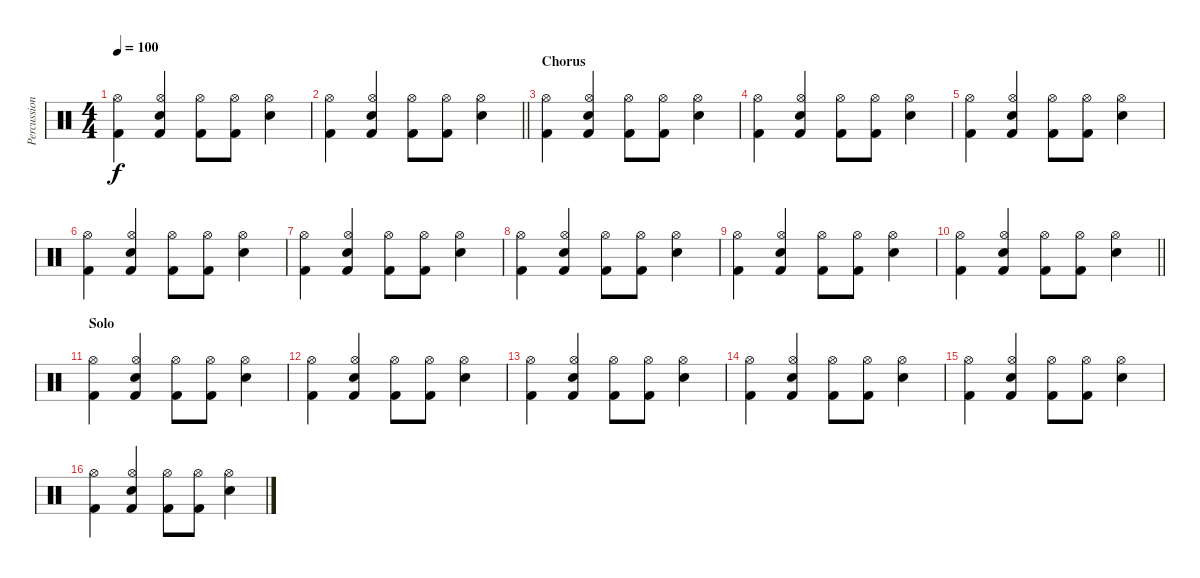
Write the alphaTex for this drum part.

\track ("Percussion" "Percussion") {instrument percussion}
\staff {score}
\articulation defaults
\ts (4 4)
\tempo 100
\clef neutral
\ks c
("Kick (hit) 2" "Hi-Hat (open)").4{dy f} ("Kick (hit) 2" "Snare (hit) 2" "Hi-Hat (open)").4 ("Kick (hit) 2" "Hi-Hat (open)").8 ("Kick (hit) 2" "Hi-Hat (open)").8 ("Snare (hit) 2" "Hi-Hat (open)").4 |
\barLineRight lightlight
("Kick (hit) 2" "Hi-Hat (open)").4 ("Kick (hit) 2" "Snare (hit) 2" "Hi-Hat (open)").4 ("Kick (hit) 2" "Hi-Hat (open)").8 ("Kick (hit) 2" "Hi-Hat (open)").8 ("Snare (hit) 2" "Hi-Hat (open)").4 |
\section ("" "Chorus")
("Kick (hit) 2" "Hi-Hat (open)").4 ("Kick (hit) 2" "Snare (hit) 2" "Hi-Hat (open)").4 ("Kick (hit) 2" "Hi-Hat (open)").8 ("Kick (hit) 2" "Hi-Hat (open)").8 ("Snare (hit) 2" "Hi-Hat (open)").4 |
("Kick (hit) 2" "Hi-Hat (open)").4 ("Kick (hit) 2" "Snare (hit) 2" "Hi-Hat (open)").4 ("Kick (hit) 2" "Hi-Hat (open)").8 ("Kick (hit) 2" "Hi-Hat (open)").8 ("Snare (hit) 2" "Hi-Hat (open)").4 |
("Kick (hit) 2" "Hi-Hat (open)").4 ("Kick (hit) 2" "Snare (hit) 2" "Hi-Hat (open)").4 ("Kick (hit) 2" "Hi-Hat (open)").8 ("Kick (hit) 2" "Hi-Hat (open)").8 ("Snare (hit) 2" "Hi-Hat (open)").4 |
("Kick (hit) 2" "Hi-Hat (open)").4 ("Kick (hit) 2" "Snare (hit) 2" "Hi-Hat (open)").4 ("Kick (hit) 2" "Hi-Hat (open)").8 ("Kick (hit) 2" "Hi-Hat (open)").8 ("Snare (hit) 2" "Hi-Hat (open)").4 |
("Kick (hit) 2" "Hi-Hat (open)").4 ("Kick (hit) 2" "Snare (hit) 2" "Hi-Hat (open)").4 ("Kick (hit) 2" "Hi-Hat (open)").8 ("Kick (hit) 2" "Hi-Hat (open)").8 ("Snare (hit) 2" "Hi-Hat (open)").4 |
("Kick (hit) 2" "Hi-Hat (open)").4 ("Kick (hit) 2" "Snare (hit) 2" "Hi-Hat (open)").4 ("Kick (hit) 2" "Hi-Hat (open)").8 ("Kick (hit) 2" "Hi-Hat (open)").8 ("Snare (hit) 2" "Hi-Hat (open)").4 |
("Kick (hit) 2" "Hi-Hat (open)").4 ("Kick (hit) 2" "Snare (hit) 2" "Hi-Hat (open)").4 ("Kick (hit) 2" "Hi-Hat (open)").8 ("Kick (hit) 2" "Hi-Hat (open)").8 ("Snare (hit) 2" "Hi-Hat (open)").4 |
\barLineRight lightlight
("Kick (hit) 2" "Hi-Hat (open)").4 ("Kick (hit) 2" "Snare (hit) 2" "Hi-Hat (open)").4 ("Kick (hit) 2" "Hi-Hat (open)").8 ("Kick (hit) 2" "Hi-Hat (open)").8 ("Snare (hit) 2" "Hi-Hat (open)").4 |
\section ("" "Solo")
("Kick (hit) 2" "Hi-Hat (open)").4 ("Kick (hit) 2" "Snare (hit) 2" "Hi-Hat (open)").4 ("Kick (hit) 2" "Hi-Hat (open)").8 ("Kick (hit) 2" "Hi-Hat (open)").8 ("Snare (hit) 2" "Hi-Hat (open)").4 |
("Kick (hit) 2" "Hi-Hat (open)").4 ("Kick (hit) 2" "Snare (hit) 2" "Hi-Hat (open)").4 ("Kick (hit) 2" "Hi-Hat (open)").8 ("Kick (hit) 2" "Hi-Hat (open)").8 ("Snare (hit) 2" "Hi-Hat (open)").4 |
("Kick (hit) 2" "Hi-Hat (open)").4 ("Kick (hit) 2" "Snare (hit) 2" "Hi-Hat (open)").4 ("Kick (hit) 2" "Hi-Hat (open)").8 ("Kick (hit) 2" "Hi-Hat (open)").8 ("Snare (hit) 2" "Hi-Hat (open)").4 |
("Kick (hit) 2" "Hi-Hat (open)").4 ("Kick (hit) 2" "Snare (hit) 2" "Hi-Hat (open)").4 ("Kick (hit) 2" "Hi-Hat (open)").8 ("Kick (hit) 2" "Hi-Hat (open)").8 ("Snare (hit) 2" "Hi-Hat (open)").4 |
("Kick (hit) 2" "Hi-Hat (open)").4 ("Kick (hit) 2" "Snare (hit) 2" "Hi-Hat (open)").4 ("Kick (hit) 2" "Hi-Hat (open)").8 ("Kick (hit) 2" "Hi-Hat (open)").8 ("Snare (hit) 2" "Hi-Hat (open)").4 |
("Kick (hit) 2" "Hi-Hat (open)").4 ("Kick (hit) 2" "Snare (hit) 2" "Hi-Hat (open)").4 ("Kick (hit) 2" "Hi-Hat (open)").8 ("Kick (hit) 2" "Hi-Hat (open)").8 ("Snare (hit) 2" "Hi-Hat (open)").4
